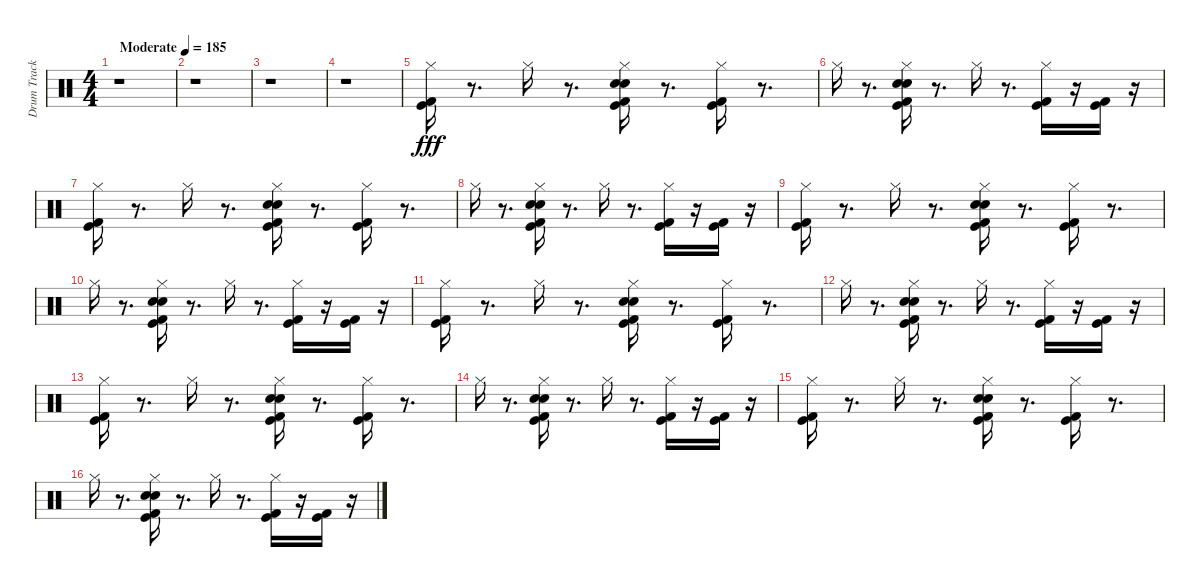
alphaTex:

\track ("Drum Track" "Drum Track") {instrument percussion}
\staff {score}
\articulation defaults
\ts (4 4)
\tempo (185 "Moderate")
\clef neutral
\ks c
r.1{dy fff} |
r.1 |
r.1 |
r.1 |
("Hi-Hat (closed)" "Kick (hit) 2" "Kick (hit)").16 r.8{d} "Hi-Hat (closed)".16 r.8{d} ("Snare (hit) 2" "Electric Snare (hit)" "Kick (hit) 2" "Kick (hit)" "Hi-Hat (closed)").16 r.8{d} ("Kick (hit)" "Kick (hit) 2" "Hi-Hat (closed)").16 r.8{d} |
"Hi-Hat (closed)".16 r.8{d} ("Hi-Hat (closed)" "Kick (hit)" "Kick (hit) 2" "Electric Snare (hit)" "Snare (hit) 2").16 r.8{d} "Hi-Hat (closed)".16 r.8{d} ("Hi-Hat (closed)" "Kick (hit)" "Kick (hit) 2").16 r.16 ("Kick (hit) 2" "Kick (hit)").16 r.16 |
("Kick (hit)" "Kick (hit) 2" "Hi-Hat (closed)").16 r.8{d} "Hi-Hat (closed)".16 r.8{d} ("Snare (hit) 2" "Electric Snare (hit)" "Kick (hit) 2" "Kick (hit)" "Hi-Hat (closed)").16 r.8{d} ("Kick (hit)" "Kick (hit) 2" "Hi-Hat (closed)").16 r.8{d} |
"Hi-Hat (closed)".16 r.8{d} ("Hi-Hat (closed)" "Kick (hit)" "Kick (hit) 2" "Electric Snare (hit)" "Snare (hit) 2").16 r.8{d} "Hi-Hat (closed)".16 r.8{d} ("Hi-Hat (closed)" "Kick (hit)" "Kick (hit) 2").16 r.16 ("Kick (hit) 2" "Kick (hit)").16 r.16 |
("Kick (hit)" "Kick (hit) 2" "Hi-Hat (closed)").16 r.8{d} "Hi-Hat (closed)".16 r.8{d} ("Snare (hit) 2" "Electric Snare (hit)" "Kick (hit) 2" "Kick (hit)" "Hi-Hat (closed)").16 r.8{d} ("Kick (hit)" "Kick (hit) 2" "Hi-Hat (closed)").16 r.8{d} |
"Hi-Hat (closed)".16 r.8{d} ("Hi-Hat (closed)" "Kick (hit)" "Kick (hit) 2" "Electric Snare (hit)" "Snare (hit) 2").16 r.8{d} "Hi-Hat (closed)".16 r.8{d} ("Hi-Hat (closed)" "Kick (hit)" "Kick (hit) 2").16 r.16 ("Kick (hit) 2" "Kick (hit)").16 r.16 |
("Hi-Hat (closed)" "Kick (hit) 2" "Kick (hit)").16 r.8{d} "Hi-Hat (closed)".16 r.8{d} ("Snare (hit) 2" "Electric Snare (hit)" "Kick (hit) 2" "Kick (hit)" "Hi-Hat (closed)").16 r.8{d} ("Kick (hit)" "Kick (hit) 2" "Hi-Hat (closed)").16 r.8{d} |
"Hi-Hat (closed)".16 r.8{d} ("Hi-Hat (closed)" "Kick (hit)" "Kick (hit) 2" "Electric Snare (hit)" "Snare (hit) 2").16 r.8{d} "Hi-Hat (closed)".16 r.8{d} ("Hi-Hat (closed)" "Kick (hit)" "Kick (hit) 2").16 r.16 ("Kick (hit) 2" "Kick (hit)").16 r.16 |
("Hi-Hat (closed)" "Kick (hit) 2" "Kick (hit)").16 r.8{d} "Hi-Hat (closed)".16 r.8{d} ("Snare (hit) 2" "Electric Snare (hit)" "Kick (hit) 2" "Kick (hit)" "Hi-Hat (closed)").16 r.8{d} ("Kick (hit)" "Kick (hit) 2" "Hi-Hat (closed)").16 r.8{d} |
"Hi-Hat (closed)".16 r.8{d} ("Hi-Hat (closed)" "Kick (hit)" "Kick (hit) 2" "Electric Snare (hit)" "Snare (hit) 2").16 r.8{d} "Hi-Hat (closed)".16 r.8{d} ("Hi-Hat (closed)" "Kick (hit)" "Kick (hit) 2").16 r.16 ("Kick (hit) 2" "Kick (hit)").16 r.16 |
("Hi-Hat (closed)" "Kick (hit) 2" "Kick (hit)").16 r.8{d} "Hi-Hat (closed)".16 r.8{d} ("Snare (hit) 2" "Electric Snare (hit)" "Kick (hit) 2" "Kick (hit)" "Hi-Hat (closed)").16 r.8{d} ("Kick (hit)" "Kick (hit) 2" "Hi-Hat (closed)").16 r.8{d} |
"Hi-Hat (closed)".16 r.8{d} ("Hi-Hat (closed)" "Kick (hit)" "Kick (hit) 2" "Electric Snare (hit)" "Snare (hit) 2").16 r.8{d} "Hi-Hat (closed)".16 r.8{d} ("Hi-Hat (closed)" "Kick (hit)" "Kick (hit) 2").16 r.16 ("Kick (hit) 2" "Kick (hit)").16 r.16
